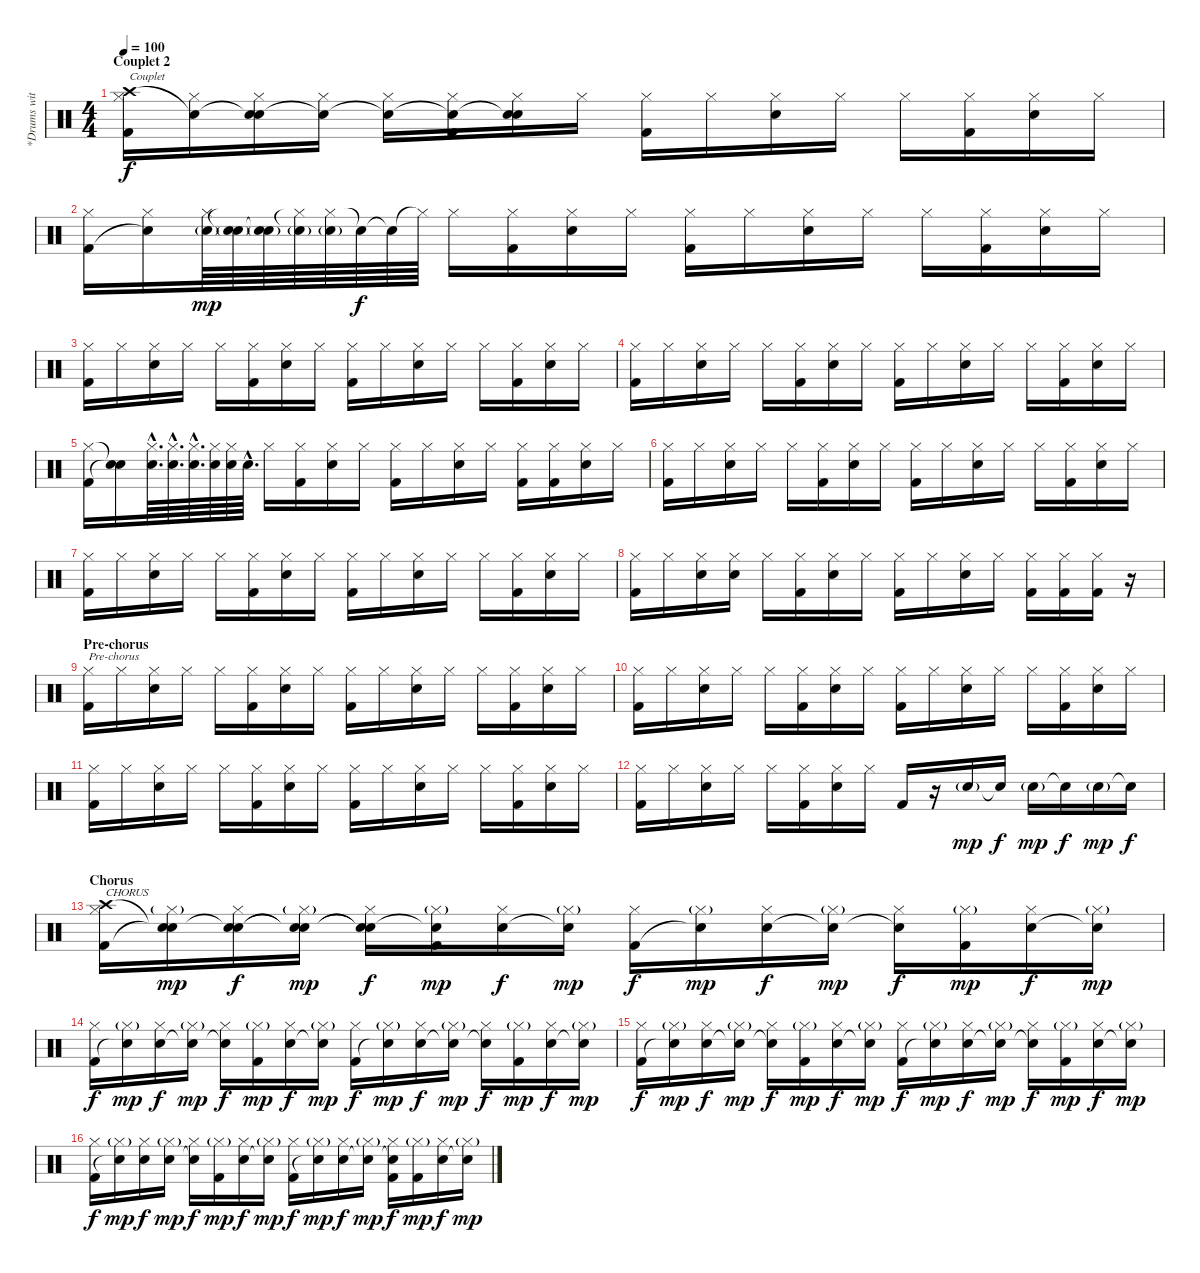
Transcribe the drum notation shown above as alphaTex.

\track ("*Drums with sampled drums (Rob and Joe)" "*Drums wit") {instrument percussion}
\staff {score}
\articulation defaults
\ts (4 4)
\section ("" "Couplet 2")
\tempo 100
\clef neutral
\ks c
("Crash high (hit)" "Hi-Hat (closed)" "Kick (hit) 2").16{txt "Couplet" dy f} ("Snare (hit)"{t} "Hi-Hat (closed)").16 ("Snare (hit)"{t} "Hi-Hat (closed)" "Electric Snare (hit)").16 ("Snare (hit)"{t} "Hi-Hat (closed)").16 ("Snare (hit)"{t} "Hi-Hat (closed)").16 ("Snare (hit)"{t} "Hi-Hat (closed)" "Kick (hit) 2").16 ("Snare (hit)"{t} "Hi-Hat (closed)" "Electric Snare (hit)").16 "Hi-Hat (closed)".16 ("Hi-Hat (closed)" "Kick (hit) 2").16 "Hi-Hat (closed)".16 ("Hi-Hat (closed)" "Electric Snare (hit)").16 "Hi-Hat (closed)".16 "Hi-Hat (closed)".16 ("Hi-Hat (closed)" "Kick (hit) 2").16 ("Hi-Hat (closed)" "Electric Snare (hit)").16 "Hi-Hat (closed)".16 |
("Hi-Hat (closed)" "Kick (hit) 2").16 ("Hi-Hat (closed)" "Snare (hit)"{t}).16 ("Hi-Hat (closed)" "Electric Snare (hit)"{g}).64{dy mp} ("Snare (hit)"{t} "Electric Snare (hit)"{g}).64 ("Snare (hit)"{t} "Electric Snare (hit)"{g}).64 ("Hi-Hat (closed)"{t} "Electric Snare (hit)"{g}).64 ("Hi-Hat (closed)" "Electric Snare (hit)"{g}).64 "Snare (hit)"{t}.64{dy f} "Snare (hit)"{t}.64 "Hi-Hat (closed)"{t}.64 "Hi-Hat (closed)".16 ("Hi-Hat (closed)" "Kick (hit) 2").16 ("Hi-Hat (closed)" "Electric Snare (hit)").16 "Hi-Hat (closed)".16 ("Hi-Hat (closed)" "Kick (hit) 2").16 "Hi-Hat (closed)".16 ("Hi-Hat (closed)" "Electric Snare (hit)").16 "Hi-Hat (closed)".16 "Hi-Hat (closed)".16 ("Hi-Hat (closed)" "Kick (hit) 2").16 ("Hi-Hat (closed)" "Electric Snare (hit)").16 "Hi-Hat (closed)".16 |
("Hi-Hat (closed)" "Kick (hit) 2").16 "Hi-Hat (closed)".16 ("Hi-Hat (closed)" "Electric Snare (hit)").16 "Hi-Hat (closed)".16 "Hi-Hat (closed)".16 ("Hi-Hat (closed)" "Kick (hit) 2").16 ("Hi-Hat (closed)" "Electric Snare (hit)").16 "Hi-Hat (closed)".16 ("Hi-Hat (closed)" "Kick (hit) 2").16 "Hi-Hat (closed)".16 ("Hi-Hat (closed)" "Electric Snare (hit)").16 "Hi-Hat (closed)".16 "Hi-Hat (closed)".16 ("Hi-Hat (closed)" "Kick (hit) 2").16 ("Hi-Hat (closed)" "Electric Snare (hit)").16 "Hi-Hat (closed)".16 |
("Hi-Hat (closed)" "Kick (hit) 2").16 "Hi-Hat (closed)".16 ("Hi-Hat (closed)" "Electric Snare (hit)").16 "Hi-Hat (closed)".16 "Hi-Hat (closed)".16 ("Hi-Hat (closed)" "Kick (hit) 2").16 ("Hi-Hat (closed)" "Electric Snare (hit)").16 "Hi-Hat (closed)".16 ("Hi-Hat (closed)" "Kick (hit) 2").16 "Hi-Hat (closed)".16 ("Hi-Hat (closed)" "Electric Snare (hit)").16 "Hi-Hat (closed)".16 "Hi-Hat (closed)".16 ("Hi-Hat (closed)" "Kick (hit) 2").16 ("Hi-Hat (closed)" "Electric Snare (hit)").16 "Hi-Hat (closed)".16 |
("Hi-Hat (closed)" "Kick (hit) 2").16 ("Snare (hit)"{t} "Snare (hit)"{t}).16 ("Hi-Hat (closed)"{hac} "Electric Snare (hit)"{hac}).64{d} ("Hi-Hat (closed)"{hac} "Electric Snare (hit)"{hac}).64{d} ("Hi-Hat (closed)"{hac} "Electric Snare (hit)"{hac}).64{d} ("Hi-Hat (closed)" "Electric Snare (hit)").64 ("Hi-Hat (closed)" "Electric Snare (hit)").64 "Electric Snare (hit)"{hac}.64{d} "Hi-Hat (closed)".16 ("Hi-Hat (closed)" "Kick (hit) 2").16 ("Hi-Hat (closed)" "Electric Snare (hit)").16 "Hi-Hat (closed)".16 ("Hi-Hat (closed)" "Kick (hit) 2").16 "Hi-Hat (closed)".16 ("Hi-Hat (closed)" "Electric Snare (hit)").16 "Hi-Hat (closed)".16 ("Hi-Hat (closed)" "Kick (hit) 2").16 ("Hi-Hat (closed)" "Kick (hit) 2").16 ("Hi-Hat (closed)" "Electric Snare (hit)").16 "Hi-Hat (closed)".16 |
("Hi-Hat (closed)" "Kick (hit) 2").16 "Hi-Hat (closed)".16 ("Hi-Hat (closed)" "Electric Snare (hit)").16 "Hi-Hat (closed)".16 "Hi-Hat (closed)".16 ("Hi-Hat (closed)" "Kick (hit) 2").16 ("Hi-Hat (closed)" "Electric Snare (hit)").16 "Hi-Hat (closed)".16 ("Hi-Hat (closed)" "Kick (hit) 2").16 "Hi-Hat (closed)".16 ("Hi-Hat (closed)" "Electric Snare (hit)").16 "Hi-Hat (closed)".16 "Hi-Hat (closed)".16 ("Hi-Hat (closed)" "Kick (hit) 2").16 ("Hi-Hat (closed)" "Electric Snare (hit)").16 "Hi-Hat (closed)".16 |
("Hi-Hat (closed)" "Kick (hit) 2").16 "Hi-Hat (closed)".16 ("Hi-Hat (closed)" "Electric Snare (hit)").16 "Hi-Hat (closed)".16 "Hi-Hat (closed)".16 ("Hi-Hat (closed)" "Kick (hit) 2").16 ("Hi-Hat (closed)" "Electric Snare (hit)").16 "Hi-Hat (closed)".16 ("Hi-Hat (closed)" "Kick (hit) 2").16 "Hi-Hat (closed)".16 ("Hi-Hat (closed)" "Electric Snare (hit)").16 "Hi-Hat (closed)".16 "Hi-Hat (closed)".16 ("Hi-Hat (closed)" "Kick (hit) 2").16 ("Hi-Hat (closed)" "Electric Snare (hit)").16 "Hi-Hat (closed)".16 |
("Hi-Hat (closed)" "Kick (hit) 2").16 "Hi-Hat (closed)".16 ("Hi-Hat (closed)" "Electric Snare (hit)").16 ("Hi-Hat (closed)" "Electric Snare (hit)").16 "Hi-Hat (closed)".16 ("Hi-Hat (closed)" "Kick (hit) 2").16 ("Hi-Hat (closed)" "Electric Snare (hit)").16 "Hi-Hat (closed)".16 ("Hi-Hat (closed)" "Kick (hit) 2").16 "Hi-Hat (closed)".16 ("Hi-Hat (closed)" "Electric Snare (hit)").16 "Hi-Hat (closed)".16 ("Hi-Hat (closed)" "Kick (hit) 2").16 ("Hi-Hat (closed)" "Kick (hit) 2").16 ("Hi-Hat (closed)" "Kick (hit) 2").16 r.16 |
\section ("" "Pre-chorus")
("Hi-Hat (closed)" "Kick (hit) 2").16{txt "Pre-chorus"} "Hi-Hat (closed)".16 ("Hi-Hat (closed)" "Electric Snare (hit)").16 "Hi-Hat (closed)".16 "Hi-Hat (closed)".16 ("Hi-Hat (closed)" "Kick (hit) 2").16 ("Hi-Hat (closed)" "Electric Snare (hit)").16 "Hi-Hat (closed)".16 ("Hi-Hat (closed)" "Kick (hit) 2").16 "Hi-Hat (closed)".16 ("Hi-Hat (closed)" "Electric Snare (hit)").16 "Hi-Hat (closed)".16 "Hi-Hat (closed)".16 ("Hi-Hat (closed)" "Kick (hit) 2").16 ("Hi-Hat (closed)" "Electric Snare (hit)").16 "Hi-Hat (closed)".16 |
("Hi-Hat (closed)" "Kick (hit) 2").16 "Hi-Hat (closed)".16 ("Hi-Hat (closed)" "Electric Snare (hit)").16 "Hi-Hat (closed)".16 "Hi-Hat (closed)".16 ("Hi-Hat (closed)" "Kick (hit) 2").16 ("Hi-Hat (closed)" "Electric Snare (hit)").16 "Hi-Hat (closed)".16 ("Hi-Hat (closed)" "Kick (hit) 2").16 "Hi-Hat (closed)".16 ("Hi-Hat (closed)" "Electric Snare (hit)").16 "Hi-Hat (closed)".16 "Hi-Hat (closed)".16 ("Hi-Hat (closed)" "Kick (hit) 2").16 ("Hi-Hat (closed)" "Electric Snare (hit)").16 "Hi-Hat (closed)".16 |
("Hi-Hat (closed)" "Kick (hit) 2").16 "Hi-Hat (closed)".16 ("Hi-Hat (closed)" "Electric Snare (hit)").16 "Hi-Hat (closed)".16 "Hi-Hat (closed)".16 ("Hi-Hat (closed)" "Kick (hit) 2").16 ("Hi-Hat (closed)" "Electric Snare (hit)").16 "Hi-Hat (closed)".16 ("Hi-Hat (closed)" "Kick (hit) 2").16 "Hi-Hat (closed)".16 ("Hi-Hat (closed)" "Electric Snare (hit)").16 "Hi-Hat (closed)".16 "Hi-Hat (closed)".16 ("Hi-Hat (closed)" "Kick (hit) 2").16 ("Hi-Hat (closed)" "Electric Snare (hit)").16 "Hi-Hat (closed)".16 |
("Hi-Hat (closed)" "Kick (hit) 2").16 "Hi-Hat (closed)".16 ("Hi-Hat (closed)" "Electric Snare (hit)").16 "Hi-Hat (closed)".16 "Hi-Hat (closed)".16 ("Hi-Hat (closed)" "Kick (hit) 2").16 ("Hi-Hat (closed)" "Electric Snare (hit)").16 "Hi-Hat (closed)".16 "Kick (hit) 2".16 r.16 "Electric Snare (hit)"{g}.16{dy mp} "Snare (hit)"{t}.16{dy f} "Electric Snare (hit)"{g}.16{dy mp} "Snare (hit)"{t}.16{dy f} "Electric Snare (hit)"{g}.16{dy mp} "Snare (hit)"{t}.16{dy f} |
\section ("" "Chorus")
("Crash high (hit)" "Hi-Hat (closed)" "Kick (hit) 2").16{txt "CHORUS"} ("Snare (hit)"{t} "Hi-Hat (closed)"{g} "Snare (hit)"{t}).16{dy mp} ("Snare (hit)"{t} "Hi-Hat (closed)" "Electric Snare (hit)").16{dy f} ("Snare (hit)"{t} "Hi-Hat (closed)"{g} "Snare (hit)"{t}).16{dy mp} ("Snare (hit)"{t} "Hi-Hat (closed)" "Snare (hit)"{t}).16{dy f} ("Snare (hit)"{t} "Hi-Hat (closed)"{g} "Kick (hit) 2").16{dy mp} ("Hi-Hat (closed)" "Electric Snare (hit)").16{dy f} ("Hi-Hat (closed)"{g} "Snare (hit)"{t}).16{dy mp} ("Hi-Hat (closed)" "Kick (hit) 2").16{dy f} ("Hi-Hat (closed)"{g} "Snare (hit)"{t}).16{dy mp} ("Hi-Hat (closed)" "Electric Snare (hit)").16{dy f} ("Hi-Hat (closed)"{g} "Snare (hit)"{t}).16{dy mp} ("Hi-Hat (closed)" "Snare (hit)"{t}).16{dy f} ("Hi-Hat (closed)"{g} "Kick (hit) 2").16{dy mp} ("Hi-Hat (closed)" "Electric Snare (hit)").16{dy f} ("Hi-Hat (closed)"{g} "Snare (hit)"{t}).16{dy mp} |
("Hi-Hat (closed)" "Kick (hit) 2").16{dy f} ("Hi-Hat (closed)"{g} "Snare (hit)"{t}).16{dy mp} ("Hi-Hat (closed)" "Electric Snare (hit)").16{dy f} ("Hi-Hat (closed)"{g} "Snare (hit)"{t}).16{dy mp} ("Hi-Hat (closed)" "Snare (hit)"{t}).16{dy f} ("Hi-Hat (closed)"{g} "Kick (hit) 2").16{dy mp} ("Hi-Hat (closed)" "Electric Snare (hit)").16{dy f} ("Hi-Hat (closed)"{g} "Snare (hit)"{t}).16{dy mp} ("Hi-Hat (closed)" "Kick (hit) 2").16{dy f} ("Hi-Hat (closed)"{g} "Snare (hit)"{t}).16{dy mp} ("Hi-Hat (closed)" "Electric Snare (hit)").16{dy f} ("Hi-Hat (closed)"{g} "Snare (hit)"{t}).16{dy mp} ("Hi-Hat (closed)" "Snare (hit)"{t}).16{dy f} ("Hi-Hat (closed)"{g} "Kick (hit) 2").16{dy mp} ("Hi-Hat (closed)" "Electric Snare (hit)").16{dy f} ("Hi-Hat (closed)"{g} "Snare (hit)"{t}).16{dy mp} |
("Hi-Hat (closed)" "Kick (hit) 2").16{dy f} ("Hi-Hat (closed)"{g} "Snare (hit)"{t}).16{dy mp} ("Hi-Hat (closed)" "Electric Snare (hit)").16{dy f} ("Hi-Hat (closed)"{g} "Snare (hit)"{t}).16{dy mp} ("Hi-Hat (closed)" "Snare (hit)"{t}).16{dy f} ("Hi-Hat (closed)"{g} "Kick (hit) 2").16{dy mp} ("Hi-Hat (closed)" "Electric Snare (hit)").16{dy f} ("Hi-Hat (closed)"{g} "Snare (hit)"{t}).16{dy mp} ("Hi-Hat (closed)" "Kick (hit) 2").16{dy f} ("Hi-Hat (closed)"{g} "Snare (hit)"{t}).16{dy mp} ("Hi-Hat (closed)" "Electric Snare (hit)").16{dy f} ("Hi-Hat (closed)"{g} "Snare (hit)"{t}).16{dy mp} ("Hi-Hat (closed)" "Snare (hit)"{t}).16{dy f} ("Hi-Hat (closed)"{g} "Kick (hit) 2").16{dy mp} ("Hi-Hat (closed)" "Electric Snare (hit)").16{dy f} ("Hi-Hat (closed)"{g} "Snare (hit)"{t}).16{dy mp} |
("Hi-Hat (closed)" "Kick (hit) 2").16{dy f} ("Hi-Hat (closed)"{g} "Snare (hit)"{t}).16{dy mp} ("Hi-Hat (closed)" "Electric Snare (hit)").16{dy f} ("Hi-Hat (closed)"{g} "Electric Snare (hit)").16{dy mp} ("Hi-Hat (closed)" "Snare (hit)"{t}).16{dy f} ("Hi-Hat (closed)"{g} "Kick (hit) 2").16{dy mp} ("Hi-Hat (closed)" "Electric Snare (hit)").16{dy f} ("Hi-Hat (closed)"{g} "Snare (hit)"{t}).16{dy mp} ("Hi-Hat (closed)" "Kick (hit) 2").16{dy f} ("Hi-Hat (closed)"{g} "Snare (hit)"{t}).16{dy mp} ("Hi-Hat (closed)" "Electric Snare (hit)").16{dy f} ("Hi-Hat (closed)"{g} "Snare (hit)"{t}).16{dy mp} ("Hi-Hat (closed)" "Snare (hit)"{t} "Kick (hit) 2").16{dy f} ("Hi-Hat (closed)"{g} "Kick (hit) 2").16{dy mp} ("Hi-Hat (closed)" "Electric Snare (hit)").16{dy f} ("Hi-Hat (closed)"{g} "Snare (hit)"{t}).16{dy mp}
